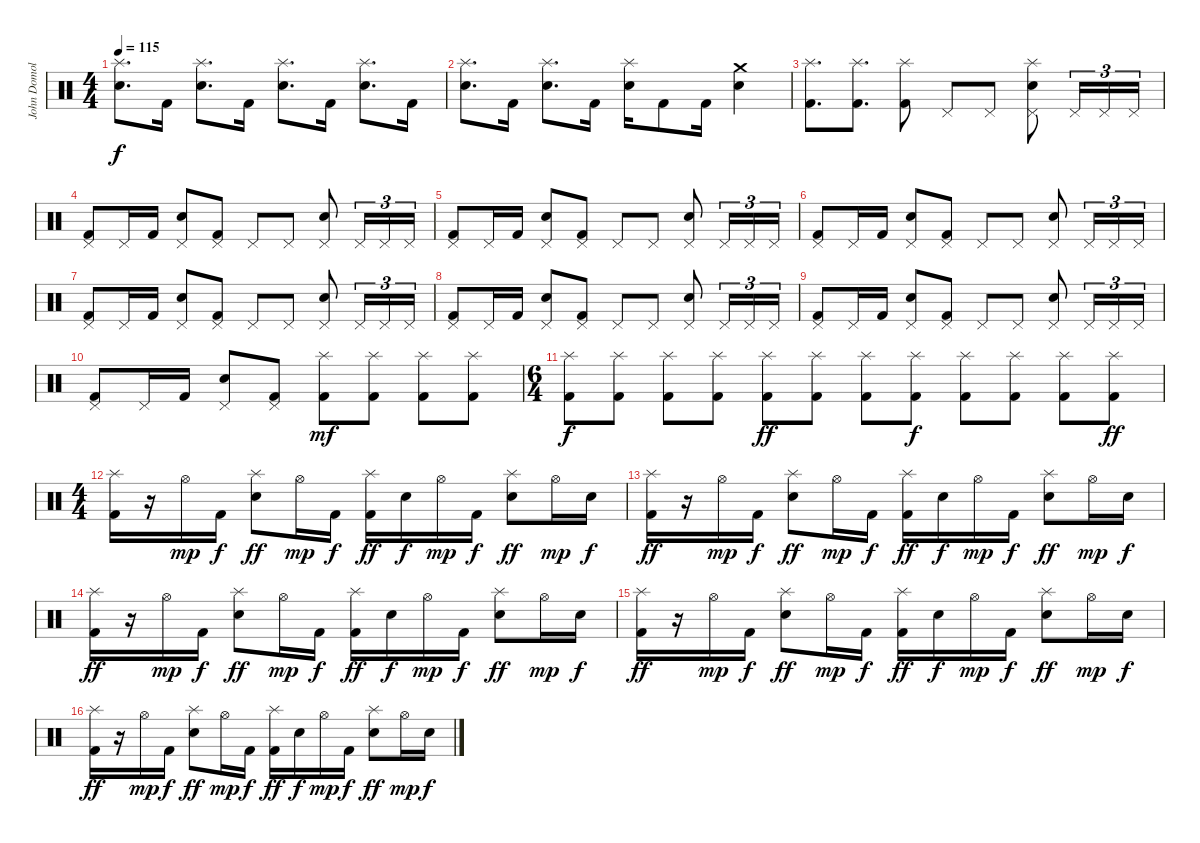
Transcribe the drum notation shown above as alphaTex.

\track ("John Domolyan (Drums)" "John Domol") {instrument percussion}
\staff {score}
\articulation defaults
\ts (4 4)
\tempo 115
\clef neutral
\ks c
("Splash (hit)" "Electric Snare (hit)").8{d dy f} "Kick (hit) 2".16 ("Splash (hit)" "Electric Snare (hit)").8{d} "Kick (hit) 2".16 ("Splash (hit)" "Electric Snare (hit)").8{d} "Kick (hit) 2".16 ("Splash (hit)" "Electric Snare (hit)").8{d} "Kick (hit) 2".16 |
("Splash (hit)" "Electric Snare (hit)").8{d} "Kick (hit) 2".16 ("Splash (hit)" "Electric Snare (hit)").8{d} "Kick (hit) 2".16 ("Splash (hit)" "Electric Snare (hit)").16 "Kick (hit) 2".8 "Kick (hit) 2".16 ("Crash medium (hit)" "Electric Snare (hit)").4 |
("Splash (hit)" "Kick (hit) 2").8{d} ("Splash (hit)" "Kick (hit) 2").8{d} ("Splash (hit)" "Kick (hit) 2").8 "Pedal Hi-Hat (hit)".8 "Pedal Hi-Hat (hit)".8 ("Pedal Hi-Hat (hit)" "Splash (hit)" "Electric Snare (hit)").8 "Pedal Hi-Hat (hit)".16{tu (3 2)} "Pedal Hi-Hat (hit)".16{tu (3 2)} "Pedal Hi-Hat (hit)".16{tu (3 2)} |
("Pedal Hi-Hat (hit)" "Kick (hit) 2").8 "Pedal Hi-Hat (hit)".16 "Kick (hit) 2".16 ("Pedal Hi-Hat (hit)" "Electric Snare (hit)").8 ("Pedal Hi-Hat (hit)" "Kick (hit) 2").8 "Pedal Hi-Hat (hit)".8 "Pedal Hi-Hat (hit)".8 ("Pedal Hi-Hat (hit)" "Electric Snare (hit)").8 "Pedal Hi-Hat (hit)".16{tu (3 2)} "Pedal Hi-Hat (hit)".16{tu (3 2)} "Pedal Hi-Hat (hit)".16{tu (3 2)} |
("Pedal Hi-Hat (hit)" "Kick (hit) 2").8 "Pedal Hi-Hat (hit)".16 "Kick (hit) 2".16 ("Pedal Hi-Hat (hit)" "Electric Snare (hit)").8 ("Pedal Hi-Hat (hit)" "Kick (hit) 2").8 "Pedal Hi-Hat (hit)".8 "Pedal Hi-Hat (hit)".8 ("Pedal Hi-Hat (hit)" "Electric Snare (hit)").8 "Pedal Hi-Hat (hit)".16{tu (3 2)} "Pedal Hi-Hat (hit)".16{tu (3 2)} "Pedal Hi-Hat (hit)".16{tu (3 2)} |
("Pedal Hi-Hat (hit)" "Kick (hit) 2").8 "Pedal Hi-Hat (hit)".16 "Kick (hit) 2".16 ("Pedal Hi-Hat (hit)" "Electric Snare (hit)").8 ("Pedal Hi-Hat (hit)" "Kick (hit) 2").8 "Pedal Hi-Hat (hit)".8 "Pedal Hi-Hat (hit)".8 ("Pedal Hi-Hat (hit)" "Electric Snare (hit)").8 "Pedal Hi-Hat (hit)".16{tu (3 2)} "Pedal Hi-Hat (hit)".16{tu (3 2)} "Pedal Hi-Hat (hit)".16{tu (3 2)} |
("Pedal Hi-Hat (hit)" "Kick (hit) 2").8 "Pedal Hi-Hat (hit)".16 "Kick (hit) 2".16 ("Pedal Hi-Hat (hit)" "Electric Snare (hit)").8 ("Pedal Hi-Hat (hit)" "Kick (hit) 2").8 "Pedal Hi-Hat (hit)".8 "Pedal Hi-Hat (hit)".8 ("Pedal Hi-Hat (hit)" "Electric Snare (hit)").8 "Pedal Hi-Hat (hit)".16{tu (3 2)} "Pedal Hi-Hat (hit)".16{tu (3 2)} "Pedal Hi-Hat (hit)".16{tu (3 2)} |
("Pedal Hi-Hat (hit)" "Kick (hit) 2").8 "Pedal Hi-Hat (hit)".16 "Kick (hit) 2".16 ("Pedal Hi-Hat (hit)" "Electric Snare (hit)").8 ("Pedal Hi-Hat (hit)" "Kick (hit) 2").8 "Pedal Hi-Hat (hit)".8 "Pedal Hi-Hat (hit)".8 ("Pedal Hi-Hat (hit)" "Electric Snare (hit)").8 "Pedal Hi-Hat (hit)".16{tu (3 2)} "Pedal Hi-Hat (hit)".16{tu (3 2)} "Pedal Hi-Hat (hit)".16{tu (3 2)} |
("Pedal Hi-Hat (hit)" "Kick (hit) 2").8 "Pedal Hi-Hat (hit)".16 "Kick (hit) 2".16 ("Pedal Hi-Hat (hit)" "Electric Snare (hit)").8 ("Pedal Hi-Hat (hit)" "Kick (hit) 2").8 "Pedal Hi-Hat (hit)".8 "Pedal Hi-Hat (hit)".8 ("Pedal Hi-Hat (hit)" "Electric Snare (hit)").8 "Pedal Hi-Hat (hit)".16{tu (3 2)} "Pedal Hi-Hat (hit)".16{tu (3 2)} "Pedal Hi-Hat (hit)".16{tu (3 2)} |
("Pedal Hi-Hat (hit)" "Kick (hit) 2").8 "Pedal Hi-Hat (hit)".16 "Kick (hit) 2".16 ("Pedal Hi-Hat (hit)" "Electric Snare (hit)").8 ("Pedal Hi-Hat (hit)" "Kick (hit) 2").8 ("Splash (hit)" "Kick (hit) 2").8{dy mf} ("Splash (hit)" "Kick (hit) 2").8 ("Splash (hit)" "Kick (hit) 2").8 ("Splash (hit)" "Kick (hit) 2").8 |
\ts (6 4)
("Splash (hit)" "Kick (hit) 2").8{dy f} ("Splash (hit)" "Kick (hit) 2").8 ("Splash (hit)" "Kick (hit) 2").8 ("Splash (hit)" "Kick (hit) 2").8 ("Splash (hit)" "Kick (hit) 2").8{dy ff} ("Splash (hit)" "Kick (hit) 2").8 ("Splash (hit)" "Kick (hit) 2").8 ("Splash (hit)" "Kick (hit) 2").8{dy f} ("Splash (hit)" "Kick (hit) 2").8 ("Splash (hit)" "Kick (hit) 2").8 ("Splash (hit)" "Kick (hit) 2").8 ("Splash (hit)" "Kick (hit) 2").8{dy ff} |
\ts (4 4)
("Splash (hit)" "Kick (hit) 2").16 r.16 "Hi-Hat (open)".16{dy mp} "Kick (hit) 2".16{dy f} ("Splash (hit)" "Electric Snare (hit)").8{dy ff} "Hi-Hat (open)".16{dy mp} "Kick (hit) 2".16{dy f} ("Splash (hit)" "Kick (hit) 2").16{dy ff} "Electric Snare (hit)".16{dy f} "Hi-Hat (open)".16{dy mp} "Kick (hit) 2".16{dy f} ("Splash (hit)" "Electric Snare (hit)").8{dy ff} "Hi-Hat (open)".16{dy mp} "Electric Snare (hit)".16{dy f} |
("Splash (hit)" "Kick (hit) 2").16{dy ff} r.16 "Hi-Hat (open)".16{dy mp} "Kick (hit) 2".16{dy f} ("Splash (hit)" "Electric Snare (hit)").8{dy ff} "Hi-Hat (open)".16{dy mp} "Kick (hit) 2".16{dy f} ("Splash (hit)" "Kick (hit) 2").16{dy ff} "Electric Snare (hit)".16{dy f} "Hi-Hat (open)".16{dy mp} "Kick (hit) 2".16{dy f} ("Splash (hit)" "Electric Snare (hit)").8{dy ff} "Hi-Hat (open)".16{dy mp} "Electric Snare (hit)".16{dy f} |
("Splash (hit)" "Kick (hit) 2").16{dy ff} r.16 "Hi-Hat (open)".16{dy mp} "Kick (hit) 2".16{dy f} ("Splash (hit)" "Electric Snare (hit)").8{dy ff} "Hi-Hat (open)".16{dy mp} "Kick (hit) 2".16{dy f} ("Splash (hit)" "Kick (hit) 2").16{dy ff} "Electric Snare (hit)".16{dy f} "Hi-Hat (open)".16{dy mp} "Kick (hit) 2".16{dy f} ("Splash (hit)" "Electric Snare (hit)").8{dy ff} "Hi-Hat (open)".16{dy mp} "Electric Snare (hit)".16{dy f} |
("Splash (hit)" "Kick (hit) 2").16{dy ff} r.16 "Hi-Hat (open)".16{dy mp} "Kick (hit) 2".16{dy f} ("Splash (hit)" "Electric Snare (hit)").8{dy ff} "Hi-Hat (open)".16{dy mp} "Kick (hit) 2".16{dy f} ("Splash (hit)" "Kick (hit) 2").16{dy ff} "Electric Snare (hit)".16{dy f} "Hi-Hat (open)".16{dy mp} "Kick (hit) 2".16{dy f} ("Splash (hit)" "Electric Snare (hit)").8{dy ff} "Hi-Hat (open)".16{dy mp} "Electric Snare (hit)".16{dy f} |
("Splash (hit)" "Kick (hit) 2").16{dy ff} r.16 "Hi-Hat (open)".16{dy mp} "Kick (hit) 2".16{dy f} ("Splash (hit)" "Electric Snare (hit)").8{dy ff} "Hi-Hat (open)".16{dy mp} "Kick (hit) 2".16{dy f} ("Splash (hit)" "Kick (hit) 2").16{dy ff} "Electric Snare (hit)".16{dy f} "Hi-Hat (open)".16{dy mp} "Kick (hit) 2".16{dy f} ("Splash (hit)" "Electric Snare (hit)").8{dy ff} "Hi-Hat (open)".16{dy mp} "Electric Snare (hit)".16{dy f}
